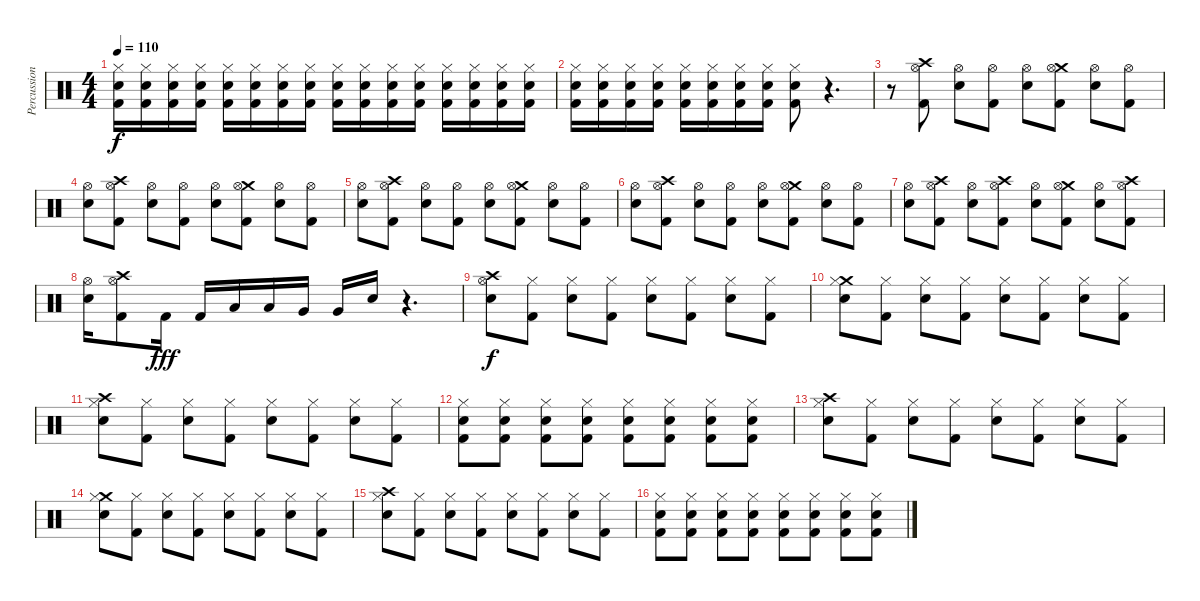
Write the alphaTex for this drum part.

\track ("Percussion" "Percussion") {instrument percussion}
\staff {score}
\articulation defaults
\ts (4 4)
\tempo 110
\clef neutral
\ks c
("Hi-Hat (closed)" "Electric Snare (hit)" "Kick (hit) 2").16{dy f volume 4} ("Hi-Hat (closed)" "Electric Snare (hit)" "Kick (hit) 2").16{volume 13} ("Hi-Hat (closed)" "Electric Snare (hit)" "Kick (hit) 2").16 ("Hi-Hat (closed)" "Electric Snare (hit)" "Kick (hit) 2").16 ("Hi-Hat (closed)" "Electric Snare (hit)" "Kick (hit) 2").16 ("Hi-Hat (closed)" "Electric Snare (hit)" "Kick (hit) 2").16 ("Hi-Hat (closed)" "Electric Snare (hit)" "Kick (hit) 2").16 ("Hi-Hat (closed)" "Electric Snare (hit)" "Kick (hit) 2").16 ("Hi-Hat (closed)" "Electric Snare (hit)" "Kick (hit) 2").16 ("Hi-Hat (closed)" "Electric Snare (hit)" "Kick (hit) 2").16 ("Hi-Hat (closed)" "Electric Snare (hit)" "Kick (hit) 2").16 ("Hi-Hat (closed)" "Electric Snare (hit)" "Kick (hit) 2").16 ("Hi-Hat (closed)" "Electric Snare (hit)" "Kick (hit) 2").16 ("Hi-Hat (closed)" "Electric Snare (hit)" "Kick (hit) 2").16 ("Hi-Hat (closed)" "Electric Snare (hit)" "Kick (hit) 2").16 ("Hi-Hat (closed)" "Electric Snare (hit)" "Kick (hit) 2").16 |
("Hi-Hat (closed)" "Electric Snare (hit)" "Kick (hit) 2").16 ("Hi-Hat (closed)" "Electric Snare (hit)" "Kick (hit) 2").16 ("Hi-Hat (closed)" "Electric Snare (hit)" "Kick (hit) 2").16 ("Hi-Hat (closed)" "Electric Snare (hit)" "Kick (hit) 2").16 ("Hi-Hat (closed)" "Electric Snare (hit)" "Kick (hit) 2").16 ("Hi-Hat (closed)" "Electric Snare (hit)" "Kick (hit) 2").16 ("Hi-Hat (closed)" "Electric Snare (hit)" "Kick (hit) 2").16 ("Hi-Hat (closed)" "Electric Snare (hit)" "Kick (hit) 2").16 ("Hi-Hat (closed)" "Electric Snare (hit)" "Kick (hit) 2").8 r.4{d} |
r.8 ("Crash high (hit)" "Hi-Hat (open)" "Kick (hit) 2").8 ("Hi-Hat (open)" "Electric Snare (hit)").8 ("Hi-Hat (open)" "Kick (hit) 2").8 ("Hi-Hat (open)" "Electric Snare (hit)").8 ("Crash medium (hit)" "Hi-Hat (open)" "Kick (hit) 2").8 ("Hi-Hat (open)" "Electric Snare (hit)").8 ("Hi-Hat (open)" "Kick (hit) 2").8 |
("Hi-Hat (open)" "Electric Snare (hit)").8 ("Crash high (hit)" "Hi-Hat (open)" "Kick (hit) 2").8 ("Hi-Hat (open)" "Electric Snare (hit)").8 ("Hi-Hat (open)" "Kick (hit) 2").8 ("Hi-Hat (open)" "Electric Snare (hit)").8 ("Crash medium (hit)" "Hi-Hat (open)" "Kick (hit) 2").8 ("Hi-Hat (open)" "Electric Snare (hit)").8 ("Hi-Hat (open)" "Kick (hit) 2").8 |
("Hi-Hat (open)" "Electric Snare (hit)").8 ("Crash high (hit)" "Hi-Hat (open)" "Kick (hit) 2").8 ("Hi-Hat (open)" "Electric Snare (hit)").8 ("Hi-Hat (open)" "Kick (hit) 2").8 ("Hi-Hat (open)" "Electric Snare (hit)").8 ("Crash medium (hit)" "Hi-Hat (open)" "Kick (hit) 2").8 ("Hi-Hat (open)" "Electric Snare (hit)").8 ("Hi-Hat (open)" "Kick (hit) 2").8 |
("Hi-Hat (open)" "Electric Snare (hit)").8 ("Crash high (hit)" "Hi-Hat (open)" "Kick (hit) 2").8 ("Hi-Hat (open)" "Electric Snare (hit)").8 ("Hi-Hat (open)" "Kick (hit) 2").8 ("Hi-Hat (open)" "Electric Snare (hit)").8 ("Crash medium (hit)" "Hi-Hat (open)" "Kick (hit) 2").8 ("Hi-Hat (open)" "Electric Snare (hit)").8 ("Hi-Hat (open)" "Kick (hit) 2").8 |
("Hi-Hat (open)" "Electric Snare (hit)").8 ("Crash high (hit)" "Hi-Hat (open)" "Kick (hit) 2").8 ("Hi-Hat (open)" "Electric Snare (hit)").8 ("Crash high (hit)" "Hi-Hat (open)" "Kick (hit) 2").8 ("Hi-Hat (open)" "Electric Snare (hit)").8 ("Crash medium (hit)" "Hi-Hat (open)" "Kick (hit) 2").8 ("Hi-Hat (open)" "Electric Snare (hit)").8 ("Crash high (hit)" "Hi-Hat (open)" "Kick (hit) 2").8 |
("Hi-Hat (open)" "Electric Snare (hit)").16 ("Crash high (hit)" "Hi-Hat (open)" "Kick (hit) 2").8 "Kick (hit) 2".16{dy fff} "Kick (hit) 2".16 "Low Floor Tom (hit)".16 "Low Floor Tom (hit)".16 "Very Low Tom (hit)".16 "Very Low Tom (hit)".16 "Electric Snare (hit)".16 r.4{d} |
("Crash high (hit)" "Hi-Hat (open)" "Electric Snare (hit)").8{dy f} ("Hi-Hat (closed)" "Kick (hit) 2").8 ("Hi-Hat (closed)" "Electric Snare (hit)").8 ("Hi-Hat (closed)" "Kick (hit) 2").8 ("Hi-Hat (closed)" "Electric Snare (hit)").8 ("Hi-Hat (closed)" "Kick (hit) 2").8 ("Hi-Hat (closed)" "Electric Snare (hit)").8 ("Hi-Hat (closed)" "Kick (hit) 2").8 |
("Crash medium (hit)" "Hi-Hat (closed)" "Electric Snare (hit)").8 ("Hi-Hat (closed)" "Kick (hit) 2").8 ("Hi-Hat (closed)" "Electric Snare (hit)").8 ("Hi-Hat (closed)" "Kick (hit) 2").8 ("Hi-Hat (closed)" "Electric Snare (hit)").8 ("Hi-Hat (closed)" "Kick (hit) 2").8 ("Hi-Hat (closed)" "Electric Snare (hit)").8 ("Hi-Hat (closed)" "Kick (hit) 2").8 |
("Crash high (hit)" "Hi-Hat (closed)" "Electric Snare (hit)").8 ("Hi-Hat (closed)" "Kick (hit) 2").8 ("Hi-Hat (closed)" "Electric Snare (hit)").8 ("Hi-Hat (closed)" "Kick (hit) 2").8 ("Hi-Hat (closed)" "Electric Snare (hit)").8 ("Hi-Hat (closed)" "Kick (hit) 2").8 ("Hi-Hat (closed)" "Electric Snare (hit)").8 ("Hi-Hat (closed)" "Kick (hit) 2").8 |
("Hi-Hat (closed)" "Electric Snare (hit)" "Kick (hit) 2").8 ("Hi-Hat (closed)" "Electric Snare (hit)" "Kick (hit) 2").8 ("Hi-Hat (closed)" "Electric Snare (hit)" "Kick (hit) 2").8 ("Hi-Hat (closed)" "Electric Snare (hit)" "Kick (hit) 2").8 ("Hi-Hat (closed)" "Electric Snare (hit)" "Kick (hit) 2").8 ("Hi-Hat (closed)" "Electric Snare (hit)" "Kick (hit) 2").8 ("Hi-Hat (closed)" "Electric Snare (hit)" "Kick (hit) 2").8 ("Hi-Hat (closed)" "Electric Snare (hit)" "Kick (hit) 2").8 |
("Crash high (hit)" "Hi-Hat (closed)" "Electric Snare (hit)").8 ("Hi-Hat (closed)" "Kick (hit) 2").8 ("Hi-Hat (closed)" "Electric Snare (hit)").8 ("Hi-Hat (closed)" "Kick (hit) 2").8 ("Hi-Hat (closed)" "Electric Snare (hit)").8 ("Hi-Hat (closed)" "Kick (hit) 2").8 ("Hi-Hat (closed)" "Electric Snare (hit)").8 ("Hi-Hat (closed)" "Kick (hit) 2").8 |
("Crash medium (hit)" "Hi-Hat (closed)" "Electric Snare (hit)").8 ("Hi-Hat (closed)" "Kick (hit) 2").8 ("Hi-Hat (closed)" "Electric Snare (hit)").8 ("Hi-Hat (closed)" "Kick (hit) 2").8 ("Hi-Hat (closed)" "Electric Snare (hit)").8 ("Hi-Hat (closed)" "Kick (hit) 2").8 ("Hi-Hat (closed)" "Electric Snare (hit)").8 ("Hi-Hat (closed)" "Kick (hit) 2").8 |
("Crash high (hit)" "Hi-Hat (closed)" "Electric Snare (hit)").8 ("Hi-Hat (closed)" "Kick (hit) 2").8 ("Hi-Hat (closed)" "Electric Snare (hit)").8 ("Hi-Hat (closed)" "Kick (hit) 2").8 ("Hi-Hat (closed)" "Electric Snare (hit)").8 ("Hi-Hat (closed)" "Kick (hit) 2").8 ("Hi-Hat (closed)" "Electric Snare (hit)").8 ("Hi-Hat (closed)" "Kick (hit) 2").8 |
("Hi-Hat (closed)" "Electric Snare (hit)" "Kick (hit) 2").8 ("Hi-Hat (closed)" "Electric Snare (hit)" "Kick (hit) 2").8 ("Hi-Hat (closed)" "Electric Snare (hit)" "Kick (hit) 2").8 ("Hi-Hat (closed)" "Electric Snare (hit)" "Kick (hit) 2").8 ("Hi-Hat (closed)" "Electric Snare (hit)" "Kick (hit) 2").8 ("Hi-Hat (closed)" "Electric Snare (hit)" "Kick (hit) 2").8 ("Hi-Hat (closed)" "Electric Snare (hit)" "Kick (hit) 2").8 ("Hi-Hat (closed)" "Electric Snare (hit)" "Kick (hit) 2").8
